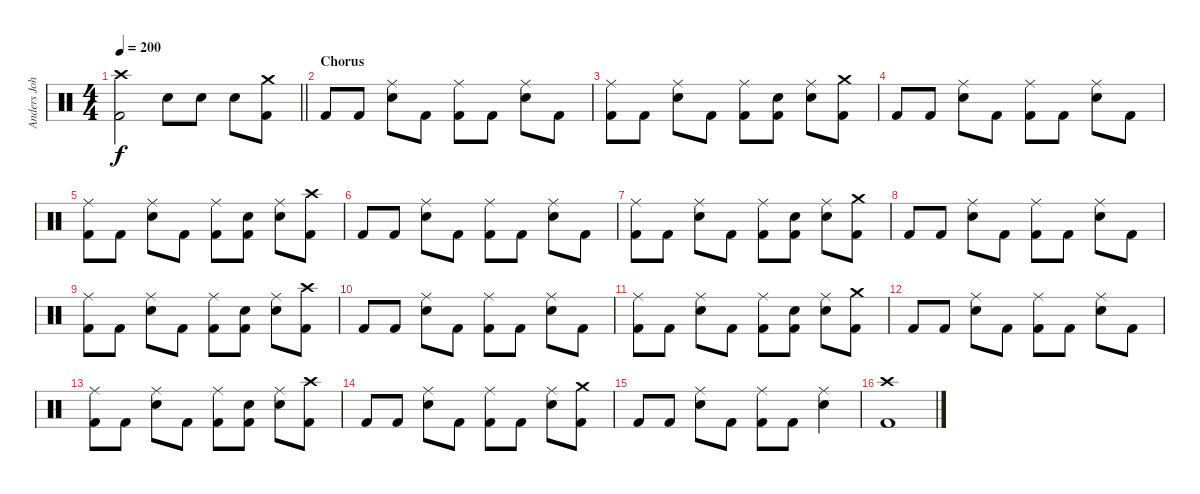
\track ("Anders Johansson" "Anders Joh") {instrument percussion}
\staff {score}
\articulation defaults
\ts (4 4)
\tempo 200
\clef neutral
\barLineRight lightlight
\ks c
("Crash high (hit)" "Kick (hit) 2").2{dy f} "Snare (hit) 2".8 "Snare (hit) 2".8 "Snare (hit) 2".8 ("Crash medium (hit)" "Kick (hit) 2").8 |
\section ("" "Chorus")
"Kick (hit) 2".8 "Kick (hit) 2".8 ("Ride (middle)" "Snare (hit) 2").8 "Kick (hit) 2".8 ("Ride (middle)" "Kick (hit) 2").8 "Kick (hit) 2".8 ("Ride (middle)" "Snare (hit) 2").8 "Kick (hit) 2".8 |
("Ride (middle)" "Kick (hit) 2").8 "Kick (hit) 2".8 ("Ride (middle)" "Snare (hit) 2").8 "Kick (hit) 2".8 ("Ride (middle)" "Kick (hit) 2").8 ("Snare (hit) 2" "Kick (hit) 2").8 ("Ride (middle)" "Snare (hit) 2").8 ("Crash medium (hit)" "Kick (hit) 2").8 |
"Kick (hit) 2".8 "Kick (hit) 2".8 ("Ride (middle)" "Snare (hit) 2").8 "Kick (hit) 2".8 ("Ride (middle)" "Kick (hit) 2").8 "Kick (hit) 2".8 ("Ride (middle)" "Snare (hit) 2").8 "Kick (hit) 2".8 |
("Ride (middle)" "Kick (hit) 2").8 "Kick (hit) 2".8 ("Ride (middle)" "Snare (hit) 2").8 "Kick (hit) 2".8 ("Ride (middle)" "Kick (hit) 2").8 ("Snare (hit) 2" "Kick (hit) 2").8 ("Ride (middle)" "Snare (hit) 2").8 ("Crash high (hit)" "Kick (hit) 2").8 |
"Kick (hit) 2".8 "Kick (hit) 2".8 ("Ride (middle)" "Snare (hit) 2").8 "Kick (hit) 2".8 ("Ride (middle)" "Kick (hit) 2").8 "Kick (hit) 2".8 ("Ride (middle)" "Snare (hit) 2").8 "Kick (hit) 2".8 |
("Ride (middle)" "Kick (hit) 2").8 "Kick (hit) 2".8 ("Ride (middle)" "Snare (hit) 2").8 "Kick (hit) 2".8 ("Ride (middle)" "Kick (hit) 2").8 ("Snare (hit) 2" "Kick (hit) 2").8 ("Ride (middle)" "Snare (hit) 2").8 ("Crash medium (hit)" "Kick (hit) 2").8 |
"Kick (hit) 2".8 "Kick (hit) 2".8 ("Ride (middle)" "Snare (hit) 2").8 "Kick (hit) 2".8 ("Ride (middle)" "Kick (hit) 2").8 "Kick (hit) 2".8 ("Ride (middle)" "Snare (hit) 2").8 "Kick (hit) 2".8 |
("Ride (middle)" "Kick (hit) 2").8 "Kick (hit) 2".8 ("Ride (middle)" "Snare (hit) 2").8 "Kick (hit) 2".8 ("Ride (middle)" "Kick (hit) 2").8 ("Snare (hit) 2" "Kick (hit) 2").8 ("Ride (middle)" "Snare (hit) 2").8 ("Crash high (hit)" "Kick (hit) 2").8 |
"Kick (hit) 2".8 "Kick (hit) 2".8 ("Ride (middle)" "Snare (hit) 2").8 "Kick (hit) 2".8 ("Ride (middle)" "Kick (hit) 2").8 "Kick (hit) 2".8 ("Ride (middle)" "Snare (hit) 2").8 "Kick (hit) 2".8 |
("Ride (middle)" "Kick (hit) 2").8 "Kick (hit) 2".8 ("Ride (middle)" "Snare (hit) 2").8 "Kick (hit) 2".8 ("Ride (middle)" "Kick (hit) 2").8 ("Snare (hit) 2" "Kick (hit) 2").8 ("Ride (middle)" "Snare (hit) 2").8 ("Crash medium (hit)" "Kick (hit) 2").8 |
"Kick (hit) 2".8 "Kick (hit) 2".8 ("Ride (middle)" "Snare (hit) 2").8 "Kick (hit) 2".8 ("Ride (middle)" "Kick (hit) 2").8 "Kick (hit) 2".8 ("Ride (middle)" "Snare (hit) 2").8 "Kick (hit) 2".8 |
("Ride (middle)" "Kick (hit) 2").8 "Kick (hit) 2".8 ("Ride (middle)" "Snare (hit) 2").8 "Kick (hit) 2".8 ("Ride (middle)" "Kick (hit) 2").8 ("Snare (hit) 2" "Kick (hit) 2").8 ("Ride (middle)" "Snare (hit) 2").8 ("Crash high (hit)" "Kick (hit) 2").8 |
"Kick (hit) 2".8 "Kick (hit) 2".8 ("Ride (middle)" "Snare (hit) 2").8 "Kick (hit) 2".8 ("Ride (middle)" "Kick (hit) 2").8 "Kick (hit) 2".8 ("Ride (middle)" "Snare (hit) 2").8 ("Crash medium (hit)" "Kick (hit) 2").8 |
"Kick (hit) 2".8 "Kick (hit) 2".8 ("Ride (middle)" "Snare (hit) 2").8 "Kick (hit) 2".8 ("Ride (middle)" "Kick (hit) 2").8 "Kick (hit) 2".8 ("Ride (middle)" "Snare (hit) 2").4 |
("Crash high (hit)" "Kick (hit) 2").1
